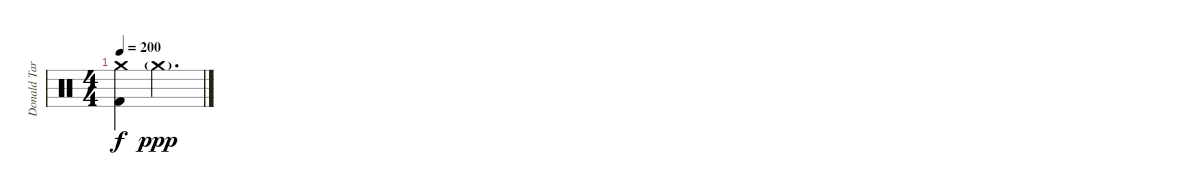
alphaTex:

\track ("Donald Tardy" "Donald Tar") {instrument percussion}
\staff {score}
\articulation defaults
\ts (4 4)
\tempo 200
\clef neutral
\ks c
("Crash medium (hit)" "Kick (hit) 2").4{dy f} "Crash medium (hit)"{g}.2{d dy ppp}
